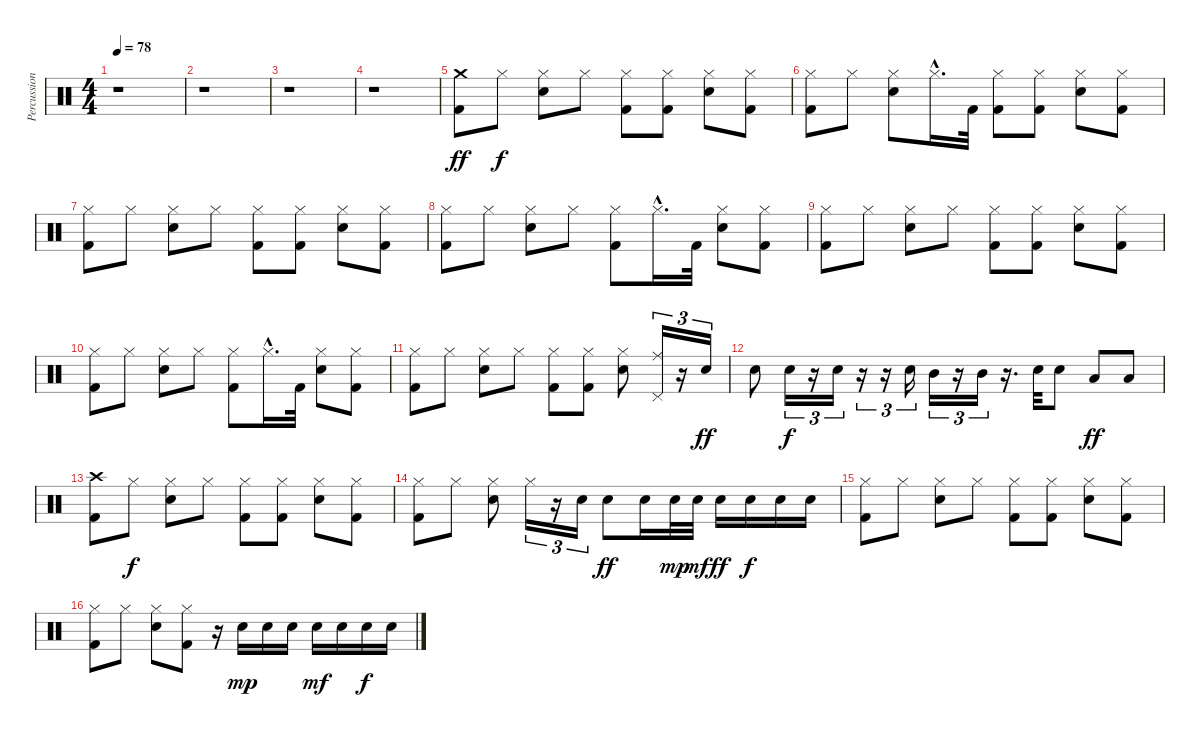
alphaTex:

\track ("Percussions" "Percussion") {instrument percussion}
\staff {score}
\articulation defaults
\ts (4 4)
\tempo 78
\clef neutral
\ks c
r.1{dy ff} |
r.1 |
r.1 |
r.1 |
("Crash medium (hit)" "Kick (hit) 2").8 "Hi-Hat (closed)".8{dy f} ("Hi-Hat (closed)" "Electric Snare (hit)").8 "Hi-Hat (closed)".8 ("Hi-Hat (closed)" "Kick (hit) 2").8 ("Hi-Hat (closed)" "Kick (hit) 2").8 ("Hi-Hat (closed)" "Electric Snare (hit)").8 ("Hi-Hat (closed)" "Kick (hit) 2").8 |
("Hi-Hat (closed)" "Kick (hit) 2").8 "Hi-Hat (closed)".8 ("Hi-Hat (closed)" "Electric Snare (hit)").8 "Hi-Hat (closed)"{hac}.16{d} "Kick (hit) 2".32 ("Hi-Hat (closed)" "Kick (hit) 2").8 ("Hi-Hat (closed)" "Kick (hit) 2").8 ("Hi-Hat (closed)" "Electric Snare (hit)").8 ("Hi-Hat (closed)" "Kick (hit) 2").8 |
("Hi-Hat (closed)" "Kick (hit) 2").8 "Hi-Hat (closed)".8 ("Hi-Hat (closed)" "Electric Snare (hit)").8 "Hi-Hat (closed)".8 ("Hi-Hat (closed)" "Kick (hit) 2").8 ("Hi-Hat (closed)" "Kick (hit) 2").8 ("Hi-Hat (closed)" "Electric Snare (hit)").8 ("Hi-Hat (closed)" "Kick (hit) 2").8 |
("Hi-Hat (closed)" "Kick (hit) 2").8 "Hi-Hat (closed)".8 ("Hi-Hat (closed)" "Electric Snare (hit)").8 "Hi-Hat (closed)".8 ("Hi-Hat (closed)" "Kick (hit) 2").8 "Hi-Hat (closed)"{hac}.16{d} "Kick (hit) 2".32 ("Hi-Hat (closed)" "Electric Snare (hit)").8 ("Hi-Hat (closed)" "Kick (hit) 2").8 |
("Hi-Hat (closed)" "Kick (hit) 2").8 "Hi-Hat (closed)".8 ("Hi-Hat (closed)" "Electric Snare (hit)").8 "Hi-Hat (closed)".8 ("Hi-Hat (closed)" "Kick (hit) 2").8 ("Hi-Hat (closed)" "Kick (hit) 2").8 ("Hi-Hat (closed)" "Electric Snare (hit)").8 ("Hi-Hat (closed)" "Kick (hit) 2").8 |
("Hi-Hat (closed)" "Kick (hit) 2").8 "Hi-Hat (closed)".8 ("Hi-Hat (closed)" "Electric Snare (hit)").8 "Hi-Hat (closed)".8 ("Hi-Hat (closed)" "Kick (hit) 2").8 "Hi-Hat (closed)"{hac}.16{d} "Kick (hit) 2".32 ("Hi-Hat (closed)" "Electric Snare (hit)").8 ("Hi-Hat (closed)" "Kick (hit) 2").8 |
("Hi-Hat (closed)" "Kick (hit) 2").8 "Hi-Hat (closed)".8 ("Hi-Hat (closed)" "Electric Snare (hit)").8 "Hi-Hat (closed)".8 ("Hi-Hat (closed)" "Kick (hit) 2").8 ("Hi-Hat (closed)" "Kick (hit) 2").8 ("Hi-Hat (closed)" "Electric Snare (hit)").8 ("Pedal Hi-Hat (hit)" "Ride (middle)").16{tu (3 2)} r.16{tu (3 2)} "Electric Snare (hit)".16{tu (3 2) dy ff} |
"Electric Snare (hit)".8 "Electric Snare (hit)".16{tu (3 2) dy f} r.16{tu (3 2)} "Electric Snare (hit)".16{tu (3 2)} r.16{tu (3 2)} r.16{tu (3 2)} "Electric Snare (hit)".16{tu (3 2)} "Mid Tom (hit)".16{tu (3 2)} r.16{tu (3 2)} "Mid Tom (hit)".16{tu (3 2)} r.16{d} "Electric Snare (hit)".32 "Electric Snare (hit)".8 "Low Tom (hit)".8{dy ff} "Low Tom (hit)".8 |
("Crash high (hit)" "Kick (hit) 2").8 "Hi-Hat (closed)".8{dy f} ("Hi-Hat (closed)" "Electric Snare (hit)").8 "Hi-Hat (closed)".8 ("Hi-Hat (closed)" "Kick (hit) 2").8 ("Hi-Hat (closed)" "Kick (hit) 2").8 ("Hi-Hat (closed)" "Electric Snare (hit)").8 ("Hi-Hat (closed)" "Kick (hit) 2").8 |
("Hi-Hat (closed)" "Kick (hit) 2").8 "Hi-Hat (closed)".8 ("Hi-Hat (closed)" "Electric Snare (hit)").8 "Hi-Hat (closed)".16{tu (3 2)} r.16{tu (3 2)} "Electric Snare (hit)".16{tu (3 2)} "Electric Snare (hit)".8{dy ff} "Electric Snare (hit)".16 "Electric Snare (hit)".32{dy mp} "Electric Snare (hit)".32{dy mf} "Electric Snare (hit)".16{dy ff} "Electric Snare (hit)".16{dy f} "Electric Snare (hit)".16 "Electric Snare (hit)".16 |
("Hi-Hat (closed)" "Kick (hit) 2").8 "Hi-Hat (closed)".8 ("Hi-Hat (closed)" "Electric Snare (hit)").8 "Hi-Hat (closed)".8 ("Hi-Hat (closed)" "Kick (hit) 2").8 ("Hi-Hat (closed)" "Kick (hit) 2").8 ("Hi-Hat (closed)" "Electric Snare (hit)").8 ("Hi-Hat (closed)" "Kick (hit) 2").8 |
("Hi-Hat (closed)" "Kick (hit) 2").8 "Hi-Hat (closed)".8 ("Hi-Hat (closed)" "Electric Snare (hit)").8 ("Hi-Hat (closed)" "Kick (hit) 2").8 r.16 "Electric Snare (hit)".16{dy mp} "Electric Snare (hit)".16 "Electric Snare (hit)".16 "Electric Snare (hit)".16{dy mf} "Electric Snare (hit)".16 "Electric Snare (hit)".16{dy f} "Electric Snare (hit)".16
